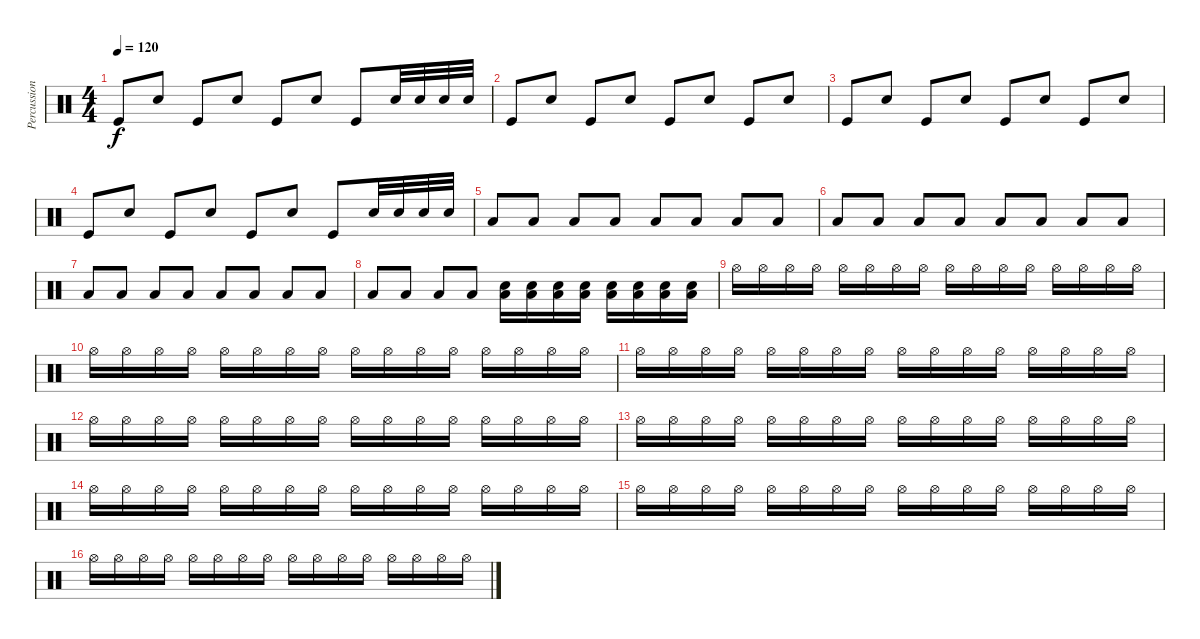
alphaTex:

\track ("Percussion" "Percussion") {instrument percussion}
\staff {score}
\articulation defaults
\ts (4 4)
\tempo 120
\clef neutral
\ks c "Kick (hit)".8{dy f} "Snare (hit) 2".8 "Kick (hit)".8 "Snare (hit) 2".8 "Kick (hit)".8 "Snare (hit) 2".8 "Kick (hit)".8 "Snare (hit) 2".32 "Snare (hit) 2".32 "Snare (hit) 2".32 "Snare (hit) 2".32
|
"Kick (hit)".8 "Snare (hit) 2".8 "Kick (hit)".8 "Snare (hit) 2".8 "Kick (hit)".8 "Snare (hit) 2".8 "Kick (hit)".8 "Snare (hit) 2".8 |
"Kick (hit)".8 "Snare (hit) 2".8 "Kick (hit)".8 "Snare (hit) 2".8 "Kick (hit)".8 "Snare (hit) 2".8 "Kick (hit)".8 "Snare (hit) 2".8 |
"Kick (hit)".8 "Snare (hit) 2".8 "Kick (hit)".8 "Snare (hit) 2".8 "Kick (hit)".8 "Snare (hit) 2".8 "Kick (hit)".8 "Snare (hit) 2".32 "Snare (hit) 2".32 "Snare (hit) 2".32 "Snare (hit) 2".32 |
"Low Floor Tom (hit)".8 "Low Floor Tom (hit)".8 "Low Floor Tom (hit)".8 "Low Floor Tom (hit)".8 "Low Floor Tom (hit)".8 "Low Floor Tom (hit)".8 "Low Floor Tom (hit)".8 "Low Floor Tom (hit)".8 |
"Low Floor Tom (hit)".8 "Low Floor Tom (hit)".8 "Low Floor Tom (hit)".8 "Low Floor Tom (hit)".8 "Low Floor Tom (hit)".8 "Low Floor Tom (hit)".8 "Low Floor Tom (hit)".8 "Low Floor Tom (hit)".8 |
"Low Floor Tom (hit)".8 "Low Floor Tom (hit)".8 "Low Floor Tom (hit)".8 "Low Floor Tom (hit)".8 "Low Floor Tom (hit)".8 "Low Floor Tom (hit)".8 "Low Floor Tom (hit)".8 "Low Floor Tom (hit)".8 |
"Low Floor Tom (hit)".8 "Low Floor Tom (hit)".8 "Low Floor Tom (hit)".8 "Low Floor Tom (hit)".8 ("Low Floor Tom (hit)" "Snare (hit) 2").16 ("Low Floor Tom (hit)" "Snare (hit) 2").16 ("Low Floor Tom (hit)" "Snare (hit) 2").16 ("Low Floor Tom (hit)" "Snare (hit) 2").16 ("Snare (hit) 2" "Low Floor Tom (hit)").16 ("Snare (hit) 2" "Low Floor Tom (hit)").16 ("Snare (hit) 2" "Low Floor Tom (hit)").16 ("Snare (hit) 2" "Low Floor Tom (hit)").16 |
"Hi-Hat (open)".16 "Hi-Hat (open)".16 "Hi-Hat (open)".16 "Hi-Hat (open)".16 "Hi-Hat (open)".16 "Hi-Hat (open)".16 "Hi-Hat (open)".16 "Hi-Hat (open)".16 "Hi-Hat (open)".16 "Hi-Hat (open)".16 "Hi-Hat (open)".16 "Hi-Hat (open)".16 "Hi-Hat (open)".16 "Hi-Hat (open)".16 "Hi-Hat (open)".16 "Hi-Hat (open)".16 |
"Hi-Hat (open)".16 "Hi-Hat (open)".16 "Hi-Hat (open)".16 "Hi-Hat (open)".16 "Hi-Hat (open)".16 "Hi-Hat (open)".16 "Hi-Hat (open)".16 "Hi-Hat (open)".16 "Hi-Hat (open)".16 "Hi-Hat (open)".16 "Hi-Hat (open)".16 "Hi-Hat (open)".16 "Hi-Hat (open)".16 "Hi-Hat (open)".16 "Hi-Hat (open)".16 "Hi-Hat (open)".16 |
"Hi-Hat (open)".16 "Hi-Hat (open)".16 "Hi-Hat (open)".16 "Hi-Hat (open)".16 "Hi-Hat (open)".16 "Hi-Hat (open)".16 "Hi-Hat (open)".16 "Hi-Hat (open)".16 "Hi-Hat (open)".16 "Hi-Hat (open)".16 "Hi-Hat (open)".16 "Hi-Hat (open)".16 "Hi-Hat (open)".16 "Hi-Hat (open)".16 "Hi-Hat (open)".16 "Hi-Hat (open)".16 |
"Hi-Hat (open)".16 "Hi-Hat (open)".16 "Hi-Hat (open)".16 "Hi-Hat (open)".16 "Hi-Hat (open)".16 "Hi-Hat (open)".16 "Hi-Hat (open)".16 "Hi-Hat (open)".16 "Hi-Hat (open)".16 "Hi-Hat (open)".16 "Hi-Hat (open)".16 "Hi-Hat (open)".16 "Hi-Hat (open)".16 "Hi-Hat (open)".16 "Hi-Hat (open)".16 "Hi-Hat (open)".16 |
"Hi-Hat (open)".16 "Hi-Hat (open)".16 "Hi-Hat (open)".16 "Hi-Hat (open)".16 "Hi-Hat (open)".16 "Hi-Hat (open)".16 "Hi-Hat (open)".16 "Hi-Hat (open)".16 "Hi-Hat (open)".16 "Hi-Hat (open)".16 "Hi-Hat (open)".16 "Hi-Hat (open)".16 "Hi-Hat (open)".16 "Hi-Hat (open)".16 "Hi-Hat (open)".16 "Hi-Hat (open)".16 |
"Hi-Hat (open)".16 "Hi-Hat (open)".16 "Hi-Hat (open)".16 "Hi-Hat (open)".16 "Hi-Hat (open)".16 "Hi-Hat (open)".16 "Hi-Hat (open)".16 "Hi-Hat (open)".16 "Hi-Hat (open)".16 "Hi-Hat (open)".16 "Hi-Hat (open)".16 "Hi-Hat (open)".16 "Hi-Hat (open)".16 "Hi-Hat (open)".16 "Hi-Hat (open)".16 "Hi-Hat (open)".16 |
"Hi-Hat (open)".16 "Hi-Hat (open)".16 "Hi-Hat (open)".16 "Hi-Hat (open)".16 "Hi-Hat (open)".16 "Hi-Hat (open)".16 "Hi-Hat (open)".16 "Hi-Hat (open)".16 "Hi-Hat (open)".16 "Hi-Hat (open)".16 "Hi-Hat (open)".16 "Hi-Hat (open)".16 "Hi-Hat (open)".16 "Hi-Hat (open)".16 "Hi-Hat (open)".16 "Hi-Hat (open)".16 |
"Hi-Hat (open)".16 "Hi-Hat (open)".16 "Hi-Hat (open)".16 "Hi-Hat (open)".16 "Hi-Hat (open)".16 "Hi-Hat (open)".16 "Hi-Hat (open)".16 "Hi-Hat (open)".16 "Hi-Hat (open)".16 "Hi-Hat (open)".16 "Hi-Hat (open)".16 "Hi-Hat (open)".16 "Hi-Hat (open)".16 "Hi-Hat (open)".16 "Hi-Hat (open)".16 "Hi-Hat (open)".16
